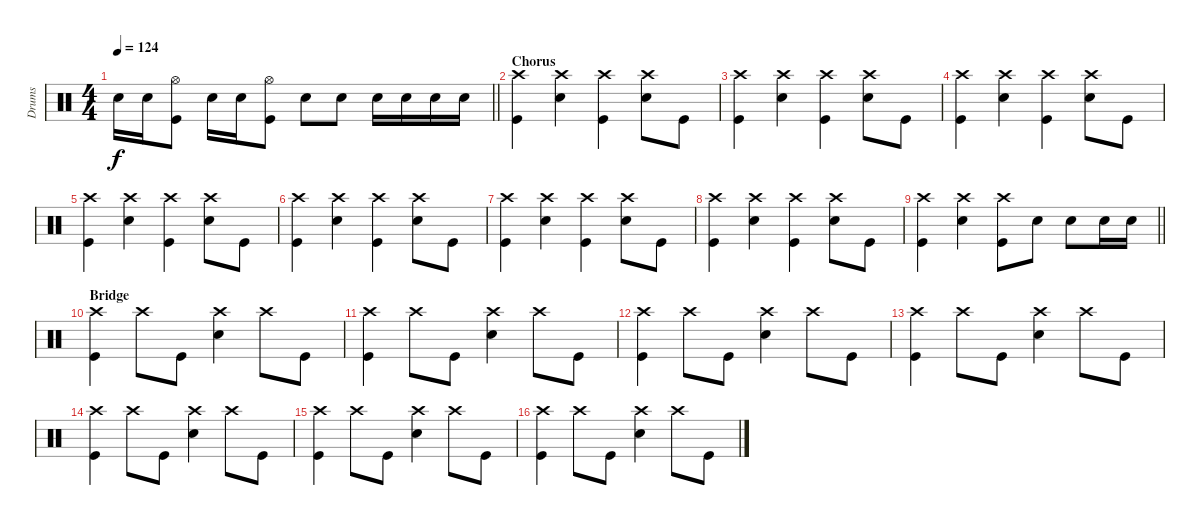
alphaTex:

\track ("Drums" "Drums") {instrument percussion}
\staff {score}
\articulation defaults
\ts (4 4)
\tempo 124
\clef neutral
\barLineRight lightlight
\ks c "Snare (hit) 2".16{dy f} "Snare (hit) 2".16
("Kick (hit)" "Hi-Hat (open)").8 "Snare (hit) 2".16 "Snare (hit) 2".16 ("Kick (hit)" "Hi-Hat (open)").8 "Snare (hit) 2".8 "Snare (hit) 2".8 "Snare (hit) 2".16 "Snare (hit) 2".16 "Snare (hit) 2".16 "Snare (hit) 2".16 |
\section ("" "Chorus")
("Kick (hit)" "Crash high (hit)").4 ("Snare (hit) 2" "Crash high (hit)").4 ("Kick (hit)" "Crash high (hit)").4 ("Snare (hit) 2" "Crash high (hit)").8 "Kick (hit)".8 |
("Kick (hit)" "Crash high (hit)").4 ("Snare (hit) 2" "Crash high (hit)").4 ("Kick (hit)" "Crash high (hit)").4 ("Snare (hit) 2" "Crash high (hit)").8 "Kick (hit)".8 |
("Kick (hit)" "Crash high (hit)").4 ("Snare (hit) 2" "Crash high (hit)").4 ("Kick (hit)" "Crash high (hit)").4 ("Snare (hit) 2" "Crash high (hit)").8 "Kick (hit)".8 |
("Kick (hit)" "Crash high (hit)").4 ("Snare (hit) 2" "Crash high (hit)").4 ("Kick (hit)" "Crash high (hit)").4 ("Snare (hit) 2" "Crash high (hit)").8 "Kick (hit)".8 |
("Kick (hit)" "Crash high (hit)").4 ("Snare (hit) 2" "Crash high (hit)").4 ("Kick (hit)" "Crash high (hit)").4 ("Snare (hit) 2" "Crash high (hit)").8 "Kick (hit)".8 |
("Kick (hit)" "Crash high (hit)").4 ("Snare (hit) 2" "Crash high (hit)").4 ("Kick (hit)" "Crash high (hit)").4 ("Snare (hit) 2" "Crash high (hit)").8 "Kick (hit)".8 |
("Kick (hit)" "Crash high (hit)").4 ("Snare (hit) 2" "Crash high (hit)").4 ("Kick (hit)" "Crash high (hit)").4 ("Snare (hit) 2" "Crash high (hit)").8 "Kick (hit)".8 |
\barLineRight lightlight
("Kick (hit)" "Crash high (hit)").4 ("Snare (hit) 2" "Crash high (hit)").4 ("Kick (hit)" "Crash high (hit)").8 "Snare (hit) 2".8 "Snare (hit) 2".8 "Snare (hit) 2".16 "Snare (hit) 2".16 |
\section ("" "Bridge")
("Kick (hit)" "Crash high (hit)").4 "Crash high (hit)".8 "Kick (hit)".8 ("Snare (hit) 2" "Crash high (hit)").4 "Crash high (hit)".8 "Kick (hit)".8 |
("Kick (hit)" "Crash high (hit)").4 "Crash high (hit)".8 "Kick (hit)".8 ("Snare (hit) 2" "Crash high (hit)").4 "Crash high (hit)".8 "Kick (hit)".8 |
("Kick (hit)" "Crash high (hit)").4 "Crash high (hit)".8 "Kick (hit)".8 ("Snare (hit) 2" "Crash high (hit)").4 "Crash high (hit)".8 "Kick (hit)".8 |
("Kick (hit)" "Crash high (hit)").4 "Crash high (hit)".8 "Kick (hit)".8 ("Snare (hit) 2" "Crash high (hit)").4 "Crash high (hit)".8 "Kick (hit)".8 |
("Kick (hit)" "Crash high (hit)").4 "Crash high (hit)".8 "Kick (hit)".8 ("Snare (hit) 2" "Crash high (hit)").4 "Crash high (hit)".8 "Kick (hit)".8 |
("Kick (hit)" "Crash high (hit)").4 "Crash high (hit)".8 "Kick (hit)".8 ("Snare (hit) 2" "Crash high (hit)").4 "Crash high (hit)".8 "Kick (hit)".8 |
("Kick (hit)" "Crash high (hit)").4 "Crash high (hit)".8 "Kick (hit)".8 ("Snare (hit) 2" "Crash high (hit)").4 "Crash high (hit)".8 "Kick (hit)".8
